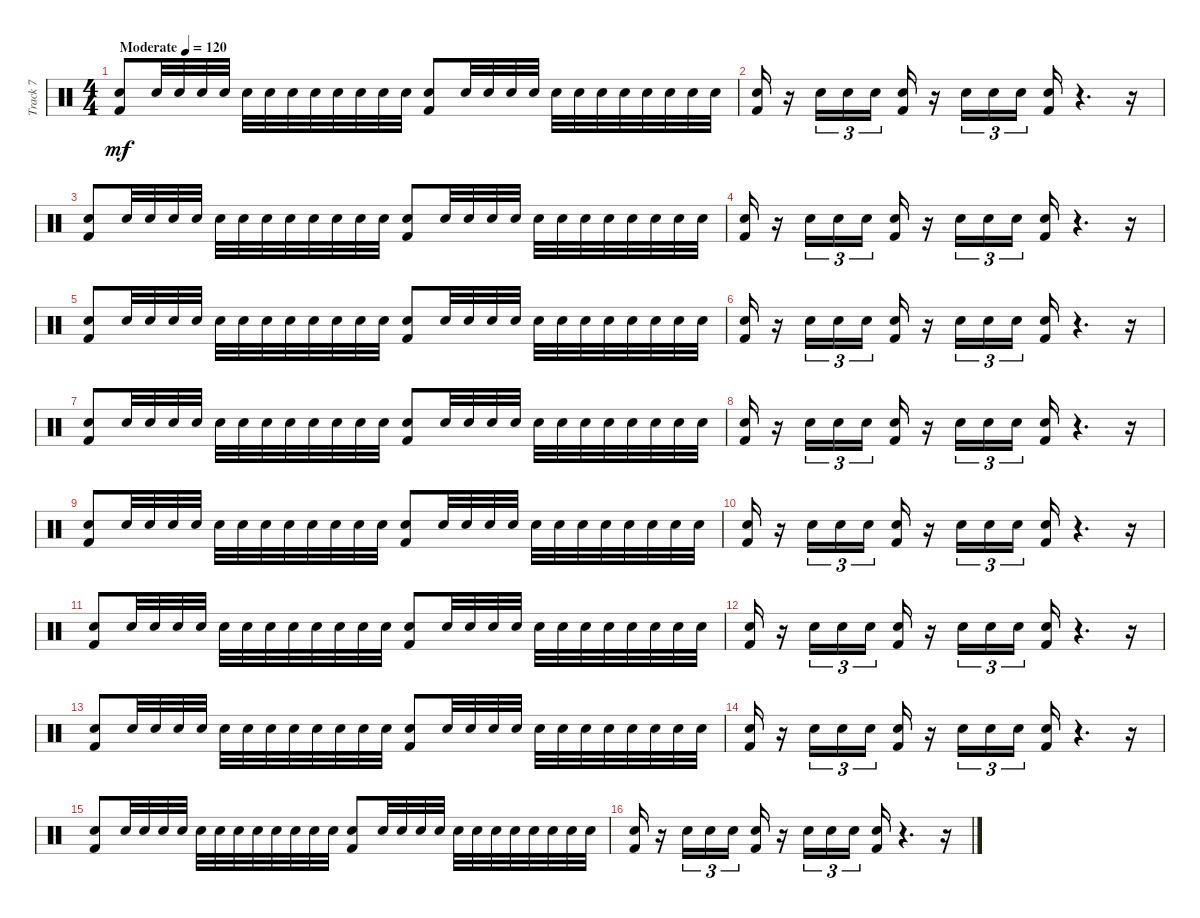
\track ("Track 7" "Track 7") {instrument percussion}
\staff {score}
\articulation defaults
\ts (4 4)
\tempo (120 "Moderate")
\clef neutral
\ks c
("Electric Snare (hit)" "Kick (hit) 2").8{dy mf} "Electric Snare (hit)".32 "Electric Snare (hit)".32 "Electric Snare (hit)".32 "Electric Snare (hit)".32 "Electric Snare (hit)".32 "Electric Snare (hit)".32 "Electric Snare (hit)".32 "Electric Snare (hit)".32 "Electric Snare (hit)".32 "Electric Snare (hit)".32 "Electric Snare (hit)".32 "Electric Snare (hit)".32 ("Electric Snare (hit)" "Kick (hit) 2").8 "Electric Snare (hit)".32 "Electric Snare (hit)".32 "Electric Snare (hit)".32 "Electric Snare (hit)".32 "Electric Snare (hit)".32 "Electric Snare (hit)".32 "Electric Snare (hit)".32 "Electric Snare (hit)".32 "Electric Snare (hit)".32 "Electric Snare (hit)".32 "Electric Snare (hit)".32 "Electric Snare (hit)".32 |
("Electric Snare (hit)" "Kick (hit) 2").16 r.16 "Electric Snare (hit)".16{tu (3 2)} "Electric Snare (hit)".16{tu (3 2)} "Electric Snare (hit)".16{tu (3 2)} ("Electric Snare (hit)" "Kick (hit) 2").16 r.16 "Electric Snare (hit)".16{tu (3 2)} "Electric Snare (hit)".16{tu (3 2)} "Electric Snare (hit)".16{tu (3 2)} ("Electric Snare (hit)" "Kick (hit) 2").16 r.4{d} r.16 |
("Electric Snare (hit)" "Kick (hit) 2").8 "Electric Snare (hit)".32 "Electric Snare (hit)".32 "Electric Snare (hit)".32 "Electric Snare (hit)".32 "Electric Snare (hit)".32 "Electric Snare (hit)".32 "Electric Snare (hit)".32 "Electric Snare (hit)".32 "Electric Snare (hit)".32 "Electric Snare (hit)".32 "Electric Snare (hit)".32 "Electric Snare (hit)".32 ("Electric Snare (hit)" "Kick (hit) 2").8 "Electric Snare (hit)".32 "Electric Snare (hit)".32 "Electric Snare (hit)".32 "Electric Snare (hit)".32 "Electric Snare (hit)".32 "Electric Snare (hit)".32 "Electric Snare (hit)".32 "Electric Snare (hit)".32 "Electric Snare (hit)".32 "Electric Snare (hit)".32 "Electric Snare (hit)".32 "Electric Snare (hit)".32 |
("Electric Snare (hit)" "Kick (hit) 2").16 r.16 "Electric Snare (hit)".16{tu (3 2)} "Electric Snare (hit)".16{tu (3 2)} "Electric Snare (hit)".16{tu (3 2)} ("Electric Snare (hit)" "Kick (hit) 2").16 r.16 "Electric Snare (hit)".16{tu (3 2)} "Electric Snare (hit)".16{tu (3 2)} "Electric Snare (hit)".16{tu (3 2)} ("Electric Snare (hit)" "Kick (hit) 2").16 r.4{d} r.16 |
("Electric Snare (hit)" "Kick (hit) 2").8 "Electric Snare (hit)".32 "Electric Snare (hit)".32 "Electric Snare (hit)".32 "Electric Snare (hit)".32 "Electric Snare (hit)".32 "Electric Snare (hit)".32 "Electric Snare (hit)".32 "Electric Snare (hit)".32 "Electric Snare (hit)".32 "Electric Snare (hit)".32 "Electric Snare (hit)".32 "Electric Snare (hit)".32 ("Electric Snare (hit)" "Kick (hit) 2").8 "Electric Snare (hit)".32 "Electric Snare (hit)".32 "Electric Snare (hit)".32 "Electric Snare (hit)".32 "Electric Snare (hit)".32 "Electric Snare (hit)".32 "Electric Snare (hit)".32 "Electric Snare (hit)".32 "Electric Snare (hit)".32 "Electric Snare (hit)".32 "Electric Snare (hit)".32 "Electric Snare (hit)".32 |
("Electric Snare (hit)" "Kick (hit) 2").16 r.16 "Electric Snare (hit)".16{tu (3 2)} "Electric Snare (hit)".16{tu (3 2)} "Electric Snare (hit)".16{tu (3 2)} ("Electric Snare (hit)" "Kick (hit) 2").16 r.16 "Electric Snare (hit)".16{tu (3 2)} "Electric Snare (hit)".16{tu (3 2)} "Electric Snare (hit)".16{tu (3 2)} ("Electric Snare (hit)" "Kick (hit) 2").16 r.4{d} r.16 |
("Electric Snare (hit)" "Kick (hit) 2").8 "Electric Snare (hit)".32 "Electric Snare (hit)".32 "Electric Snare (hit)".32 "Electric Snare (hit)".32 "Electric Snare (hit)".32 "Electric Snare (hit)".32 "Electric Snare (hit)".32 "Electric Snare (hit)".32 "Electric Snare (hit)".32 "Electric Snare (hit)".32 "Electric Snare (hit)".32 "Electric Snare (hit)".32 ("Electric Snare (hit)" "Kick (hit) 2").8 "Electric Snare (hit)".32 "Electric Snare (hit)".32 "Electric Snare (hit)".32 "Electric Snare (hit)".32 "Electric Snare (hit)".32 "Electric Snare (hit)".32 "Electric Snare (hit)".32 "Electric Snare (hit)".32 "Electric Snare (hit)".32 "Electric Snare (hit)".32 "Electric Snare (hit)".32 "Electric Snare (hit)".32 |
("Electric Snare (hit)" "Kick (hit) 2").16 r.16 "Electric Snare (hit)".16{tu (3 2)} "Electric Snare (hit)".16{tu (3 2)} "Electric Snare (hit)".16{tu (3 2)} ("Electric Snare (hit)" "Kick (hit) 2").16 r.16 "Electric Snare (hit)".16{tu (3 2)} "Electric Snare (hit)".16{tu (3 2)} "Electric Snare (hit)".16{tu (3 2)} ("Electric Snare (hit)" "Kick (hit) 2").16 r.4{d} r.16 |
("Electric Snare (hit)" "Kick (hit) 2").8 "Electric Snare (hit)".32 "Electric Snare (hit)".32 "Electric Snare (hit)".32 "Electric Snare (hit)".32 "Electric Snare (hit)".32 "Electric Snare (hit)".32 "Electric Snare (hit)".32 "Electric Snare (hit)".32 "Electric Snare (hit)".32 "Electric Snare (hit)".32 "Electric Snare (hit)".32 "Electric Snare (hit)".32 ("Electric Snare (hit)" "Kick (hit) 2").8 "Electric Snare (hit)".32 "Electric Snare (hit)".32 "Electric Snare (hit)".32 "Electric Snare (hit)".32 "Electric Snare (hit)".32 "Electric Snare (hit)".32 "Electric Snare (hit)".32 "Electric Snare (hit)".32 "Electric Snare (hit)".32 "Electric Snare (hit)".32 "Electric Snare (hit)".32 "Electric Snare (hit)".32 |
("Electric Snare (hit)" "Kick (hit) 2").16 r.16 "Electric Snare (hit)".16{tu (3 2)} "Electric Snare (hit)".16{tu (3 2)} "Electric Snare (hit)".16{tu (3 2)} ("Electric Snare (hit)" "Kick (hit) 2").16 r.16 "Electric Snare (hit)".16{tu (3 2)} "Electric Snare (hit)".16{tu (3 2)} "Electric Snare (hit)".16{tu (3 2)} ("Electric Snare (hit)" "Kick (hit) 2").16 r.4{d} r.16 |
("Electric Snare (hit)" "Kick (hit) 2").8 "Electric Snare (hit)".32 "Electric Snare (hit)".32 "Electric Snare (hit)".32 "Electric Snare (hit)".32 "Electric Snare (hit)".32 "Electric Snare (hit)".32 "Electric Snare (hit)".32 "Electric Snare (hit)".32 "Electric Snare (hit)".32 "Electric Snare (hit)".32 "Electric Snare (hit)".32 "Electric Snare (hit)".32 ("Electric Snare (hit)" "Kick (hit) 2").8 "Electric Snare (hit)".32 "Electric Snare (hit)".32 "Electric Snare (hit)".32 "Electric Snare (hit)".32 "Electric Snare (hit)".32 "Electric Snare (hit)".32 "Electric Snare (hit)".32 "Electric Snare (hit)".32 "Electric Snare (hit)".32 "Electric Snare (hit)".32 "Electric Snare (hit)".32 "Electric Snare (hit)".32 |
("Electric Snare (hit)" "Kick (hit) 2").16 r.16 "Electric Snare (hit)".16{tu (3 2)} "Electric Snare (hit)".16{tu (3 2)} "Electric Snare (hit)".16{tu (3 2)} ("Electric Snare (hit)" "Kick (hit) 2").16 r.16 "Electric Snare (hit)".16{tu (3 2)} "Electric Snare (hit)".16{tu (3 2)} "Electric Snare (hit)".16{tu (3 2)} ("Electric Snare (hit)" "Kick (hit) 2").16 r.4{d} r.16 |
("Electric Snare (hit)" "Kick (hit) 2").8 "Electric Snare (hit)".32 "Electric Snare (hit)".32 "Electric Snare (hit)".32 "Electric Snare (hit)".32 "Electric Snare (hit)".32 "Electric Snare (hit)".32 "Electric Snare (hit)".32 "Electric Snare (hit)".32 "Electric Snare (hit)".32 "Electric Snare (hit)".32 "Electric Snare (hit)".32 "Electric Snare (hit)".32 ("Electric Snare (hit)" "Kick (hit) 2").8 "Electric Snare (hit)".32 "Electric Snare (hit)".32 "Electric Snare (hit)".32 "Electric Snare (hit)".32 "Electric Snare (hit)".32 "Electric Snare (hit)".32 "Electric Snare (hit)".32 "Electric Snare (hit)".32 "Electric Snare (hit)".32 "Electric Snare (hit)".32 "Electric Snare (hit)".32 "Electric Snare (hit)".32 |
("Electric Snare (hit)" "Kick (hit) 2").16 r.16 "Electric Snare (hit)".16{tu (3 2)} "Electric Snare (hit)".16{tu (3 2)} "Electric Snare (hit)".16{tu (3 2)} ("Electric Snare (hit)" "Kick (hit) 2").16 r.16 "Electric Snare (hit)".16{tu (3 2)} "Electric Snare (hit)".16{tu (3 2)} "Electric Snare (hit)".16{tu (3 2)} ("Electric Snare (hit)" "Kick (hit) 2").16 r.4{d} r.16 |
("Electric Snare (hit)" "Kick (hit) 2").8 "Electric Snare (hit)".32 "Electric Snare (hit)".32 "Electric Snare (hit)".32 "Electric Snare (hit)".32 "Electric Snare (hit)".32 "Electric Snare (hit)".32 "Electric Snare (hit)".32 "Electric Snare (hit)".32 "Electric Snare (hit)".32 "Electric Snare (hit)".32 "Electric Snare (hit)".32 "Electric Snare (hit)".32 ("Electric Snare (hit)" "Kick (hit) 2").8 "Electric Snare (hit)".32 "Electric Snare (hit)".32 "Electric Snare (hit)".32 "Electric Snare (hit)".32 "Electric Snare (hit)".32 "Electric Snare (hit)".32 "Electric Snare (hit)".32 "Electric Snare (hit)".32 "Electric Snare (hit)".32 "Electric Snare (hit)".32 "Electric Snare (hit)".32 "Electric Snare (hit)".32 |
("Electric Snare (hit)" "Kick (hit) 2").16 r.16 "Electric Snare (hit)".16{tu (3 2)} "Electric Snare (hit)".16{tu (3 2)} "Electric Snare (hit)".16{tu (3 2)} ("Electric Snare (hit)" "Kick (hit) 2").16 r.16 "Electric Snare (hit)".16{tu (3 2)} "Electric Snare (hit)".16{tu (3 2)} "Electric Snare (hit)".16{tu (3 2)} ("Electric Snare (hit)" "Kick (hit) 2").16 r.4{d} r.16
